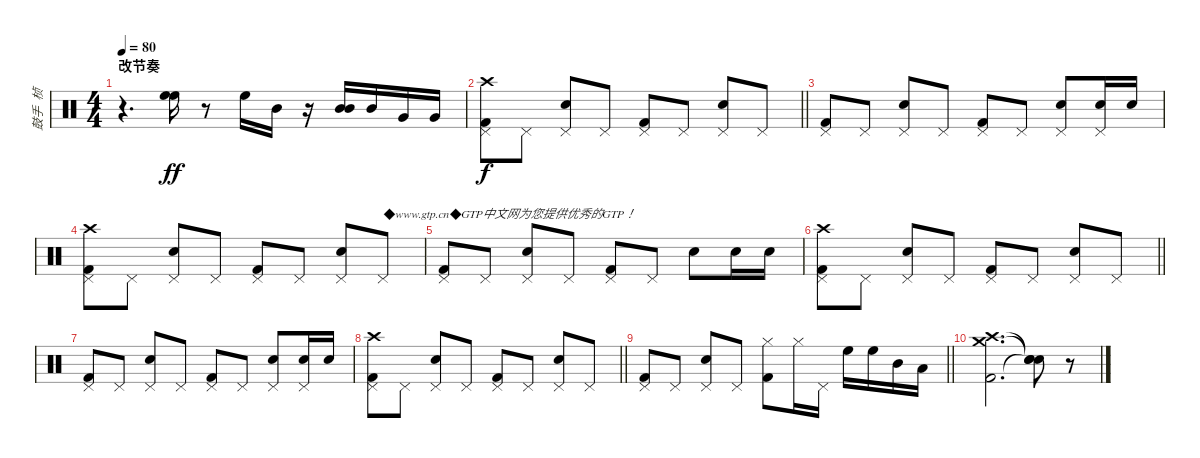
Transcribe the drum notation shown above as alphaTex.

\track ("鼓手  桢" "鼓手  桢") {instrument percussion}
\staff {score}
\articulation defaults
\ts (4 4)
\section ("" "改节奏")
\tempo 80
\clef neutral
\ks c
r.4{d dy f} ("High Floor Tom (hit)" "High Floor Tom (hit)").16{dy ff} r.8 "High Floor Tom (hit)".16 "Mid Tom (hit)".16 r.16 ("Mid Tom (hit)" "Mid Tom (hit)").16 "Mid Tom (hit)".16 "Very Low Tom (hit)".16 "Very Low Tom (hit)".16 |
\barLineRight lightlight
("Pedal Hi-Hat (hit)" "Kick (hit) 2" "Crash high (hit)").8{dy f} "Pedal Hi-Hat (hit)".8 ("Pedal Hi-Hat (hit)" "Snare (hit) 2").8 "Pedal Hi-Hat (hit)".8 ("Pedal Hi-Hat (hit)" "Kick (hit) 2").8 "Pedal Hi-Hat (hit)".8 ("Pedal Hi-Hat (hit)" "Snare (hit) 2").8 "Pedal Hi-Hat (hit)".8 |
("Pedal Hi-Hat (hit)" "Kick (hit) 2").8 "Pedal Hi-Hat (hit)".8 ("Pedal Hi-Hat (hit)" "Snare (hit) 2").8 "Pedal Hi-Hat (hit)".8 ("Pedal Hi-Hat (hit)" "Kick (hit) 2").8 "Pedal Hi-Hat (hit)".8 ("Pedal Hi-Hat (hit)" "Snare (hit) 2").8 ("Pedal Hi-Hat (hit)" "Snare (hit) 2").16 "Snare (hit) 2".16 |
("Pedal Hi-Hat (hit)" "Kick (hit) 2" "Crash high (hit)").8 "Pedal Hi-Hat (hit)".8 ("Pedal Hi-Hat (hit)" "Snare (hit) 2").8 "Pedal Hi-Hat (hit)".8 ("Pedal Hi-Hat (hit)" "Kick (hit) 2").8 "Pedal Hi-Hat (hit)".8 ("Pedal Hi-Hat (hit)" "Snare (hit) 2").8 "Pedal Hi-Hat (hit)".8{txt "◆www.gtp.cn◆GTP中文网为您提供优秀的GTP！"} |
("Pedal Hi-Hat (hit)" "Kick (hit) 2").8 "Pedal Hi-Hat (hit)".8 ("Pedal Hi-Hat (hit)" "Snare (hit) 2").8 "Pedal Hi-Hat (hit)".8 ("Pedal Hi-Hat (hit)" "Kick (hit) 2").8 "Pedal Hi-Hat (hit)".8 "Snare (hit) 2".8 "Snare (hit) 2".16 "Snare (hit) 2".16 |
\barLineRight lightlight
("Pedal Hi-Hat (hit)" "Kick (hit) 2" "Crash high (hit)").8 "Pedal Hi-Hat (hit)".8 ("Pedal Hi-Hat (hit)" "Snare (hit) 2").8 "Pedal Hi-Hat (hit)".8 ("Pedal Hi-Hat (hit)" "Kick (hit) 2").8 "Pedal Hi-Hat (hit)".8 ("Pedal Hi-Hat (hit)" "Snare (hit) 2").8 "Pedal Hi-Hat (hit)".8 |
("Pedal Hi-Hat (hit)" "Kick (hit) 2").8 "Pedal Hi-Hat (hit)".8 ("Pedal Hi-Hat (hit)" "Snare (hit) 2").8 "Pedal Hi-Hat (hit)".8 ("Pedal Hi-Hat (hit)" "Kick (hit) 2").8 "Pedal Hi-Hat (hit)".8 ("Pedal Hi-Hat (hit)" "Snare (hit) 2").8 ("Pedal Hi-Hat (hit)" "Snare (hit) 2").16 "Snare (hit) 2".16 |
\barLineRight lightlight
("Pedal Hi-Hat (hit)" "Kick (hit) 2" "Crash high (hit)").8 "Pedal Hi-Hat (hit)".8 ("Pedal Hi-Hat (hit)" "Snare (hit) 2").8 "Pedal Hi-Hat (hit)".8 ("Pedal Hi-Hat (hit)" "Kick (hit) 2").8 "Pedal Hi-Hat (hit)".8 ("Pedal Hi-Hat (hit)" "Snare (hit) 2").8 "Pedal Hi-Hat (hit)".8 |
\barLineRight lightlight
("Pedal Hi-Hat (hit)" "Kick (hit) 2").8 "Pedal Hi-Hat (hit)".8 ("Pedal Hi-Hat (hit)" "Snare (hit) 2").8 "Pedal Hi-Hat (hit)".8 ("Hi-Hat (closed)" "Kick (hit) 2").8 "Hi-Hat (closed)".16 "Pedal Hi-Hat (hit)".16 "High Floor Tom (hit)".16 "High Floor Tom (hit)".16 "Mid Tom (hit)".16 "Low Tom (hit)".16 |
("Kick (hit) 2" "Crash medium (hit)" "Crash high (hit)").2{d} ("Snare (hit)"{t} "Snare (hit)"{t} "Snare (hit)"{t}).8 r.8
